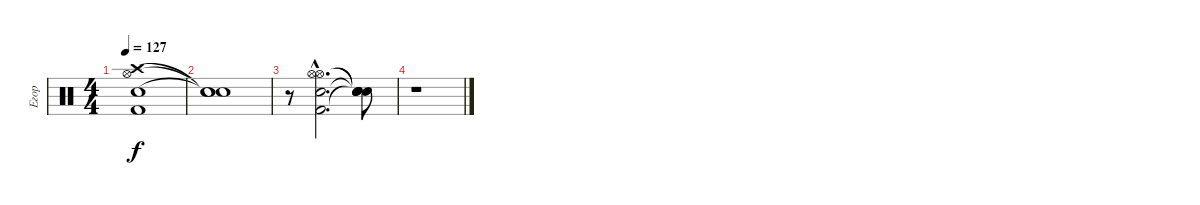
\track ("Егор" "Егор") {instrument percussion}
\staff {score}
\articulation defaults
\ts (4 4)
\tempo 127
\clef neutral
\ks c
("Hi-Hat (open)" "Electric Snare (hit)" "Crash high (hit)" "Kick (hit) 2").1{dy f} |
("Snare (hit)"{t} "Snare (hit)"{t} "Snare (hit)"{t}).1 |
r.8 ("Hi-Hat (open)"{hac} "Electric Snare (hit)"{hac} "Hi-Hat (open)"{hac} "Kick (hit) 2"{hac}).2{d} ("Snare (hit)"{t} "Snare (hit)"{t} "Snare (hit)"{t} "Snare (hit)"{t}).8 |
r.1
